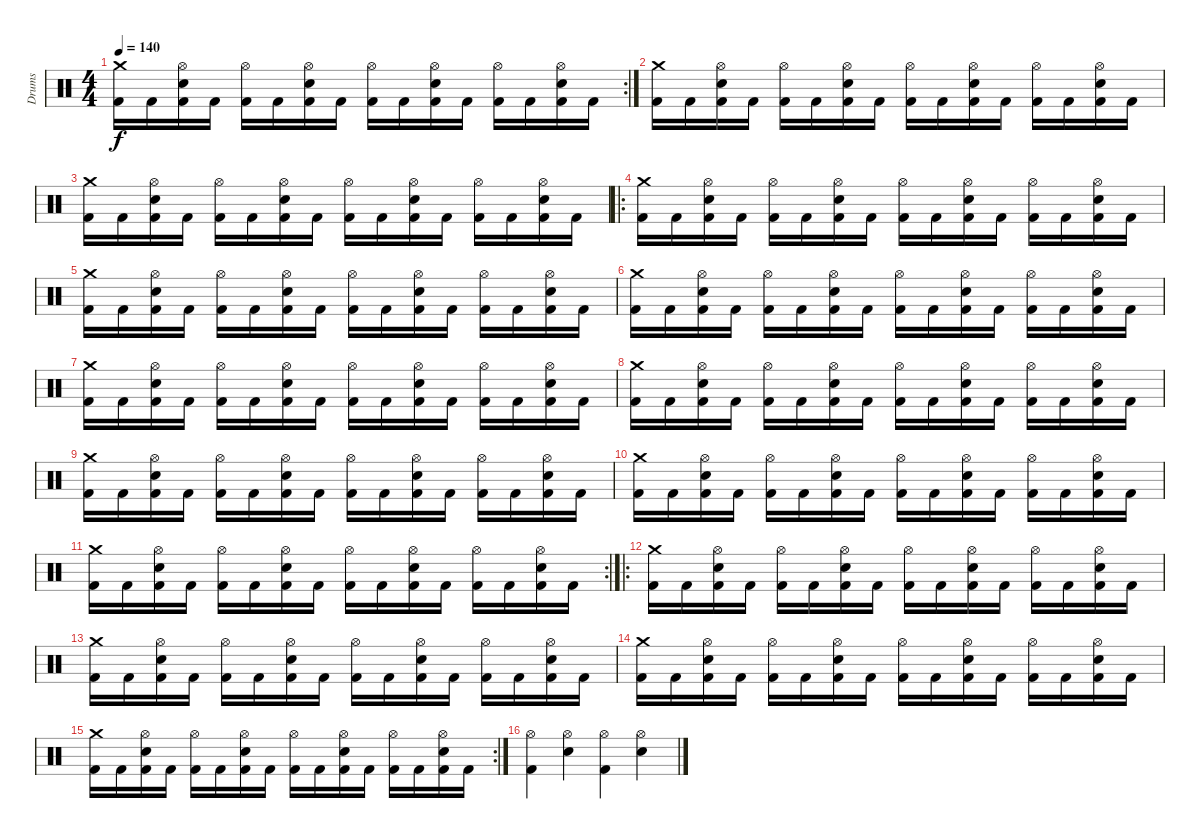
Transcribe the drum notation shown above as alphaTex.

\track ("Drums" "Drums") {instrument percussion}
\staff {score}
\articulation defaults
\rc 2
\ts (4 4)
\tempo 140
\clef neutral
\ks c
("Crash medium (hit)" "Kick (hit) 2").16{dy f} "Kick (hit) 2".16 ("Hi-Hat (open)" "Electric Snare (hit)" "Kick (hit) 2").16 "Kick (hit) 2".16 ("Hi-Hat (open)" "Kick (hit) 2").16 "Kick (hit) 2".16 ("Hi-Hat (open)" "Electric Snare (hit)" "Kick (hit) 2").16 "Kick (hit) 2".16 ("Hi-Hat (open)" "Kick (hit) 2").16 "Kick (hit) 2".16 ("Hi-Hat (open)" "Electric Snare (hit)" "Kick (hit) 2").16 "Kick (hit) 2".16 ("Hi-Hat (open)" "Kick (hit) 2").16 "Kick (hit) 2".16 ("Hi-Hat (open)" "Electric Snare (hit)" "Kick (hit) 2").16 "Kick (hit) 2".16 |
("Crash medium (hit)" "Kick (hit) 2").16 "Kick (hit) 2".16 ("Hi-Hat (open)" "Electric Snare (hit)" "Kick (hit) 2").16 "Kick (hit) 2".16 ("Hi-Hat (open)" "Kick (hit) 2").16 "Kick (hit) 2".16 ("Hi-Hat (open)" "Electric Snare (hit)" "Kick (hit) 2").16 "Kick (hit) 2".16 ("Hi-Hat (open)" "Kick (hit) 2").16 "Kick (hit) 2".16 ("Hi-Hat (open)" "Electric Snare (hit)" "Kick (hit) 2").16 "Kick (hit) 2".16 ("Hi-Hat (open)" "Kick (hit) 2").16 "Kick (hit) 2".16 ("Hi-Hat (open)" "Electric Snare (hit)" "Kick (hit) 2").16 "Kick (hit) 2".16 |
("Crash medium (hit)" "Kick (hit) 2").16 "Kick (hit) 2".16 ("Hi-Hat (open)" "Electric Snare (hit)" "Kick (hit) 2").16 "Kick (hit) 2".16 ("Hi-Hat (open)" "Kick (hit) 2").16 "Kick (hit) 2".16 ("Hi-Hat (open)" "Electric Snare (hit)" "Kick (hit) 2").16 "Kick (hit) 2".16 ("Hi-Hat (open)" "Kick (hit) 2").16 "Kick (hit) 2".16 ("Hi-Hat (open)" "Electric Snare (hit)" "Kick (hit) 2").16 "Kick (hit) 2".16 ("Hi-Hat (open)" "Kick (hit) 2").16 "Kick (hit) 2".16 ("Hi-Hat (open)" "Electric Snare (hit)" "Kick (hit) 2").16 "Kick (hit) 2".16 |
\ro
("Crash medium (hit)" "Kick (hit) 2").16 "Kick (hit) 2".16 ("Hi-Hat (open)" "Electric Snare (hit)" "Kick (hit) 2").16 "Kick (hit) 2".16 ("Hi-Hat (open)" "Kick (hit) 2").16 "Kick (hit) 2".16 ("Hi-Hat (open)" "Electric Snare (hit)" "Kick (hit) 2").16 "Kick (hit) 2".16 ("Hi-Hat (open)" "Kick (hit) 2").16 "Kick (hit) 2".16 ("Hi-Hat (open)" "Electric Snare (hit)" "Kick (hit) 2").16 "Kick (hit) 2".16 ("Hi-Hat (open)" "Kick (hit) 2").16 "Kick (hit) 2".16 ("Hi-Hat (open)" "Electric Snare (hit)" "Kick (hit) 2").16 "Kick (hit) 2".16 |
("Crash medium (hit)" "Kick (hit) 2").16 "Kick (hit) 2".16 ("Hi-Hat (open)" "Electric Snare (hit)" "Kick (hit) 2").16 "Kick (hit) 2".16 ("Hi-Hat (open)" "Kick (hit) 2").16 "Kick (hit) 2".16 ("Hi-Hat (open)" "Electric Snare (hit)" "Kick (hit) 2").16 "Kick (hit) 2".16 ("Hi-Hat (open)" "Kick (hit) 2").16 "Kick (hit) 2".16 ("Hi-Hat (open)" "Electric Snare (hit)" "Kick (hit) 2").16 "Kick (hit) 2".16 ("Hi-Hat (open)" "Kick (hit) 2").16 "Kick (hit) 2".16 ("Hi-Hat (open)" "Electric Snare (hit)" "Kick (hit) 2").16 "Kick (hit) 2".16 |
("Crash medium (hit)" "Kick (hit) 2").16 "Kick (hit) 2".16 ("Hi-Hat (open)" "Electric Snare (hit)" "Kick (hit) 2").16 "Kick (hit) 2".16 ("Hi-Hat (open)" "Kick (hit) 2").16 "Kick (hit) 2".16 ("Hi-Hat (open)" "Electric Snare (hit)" "Kick (hit) 2").16 "Kick (hit) 2".16 ("Hi-Hat (open)" "Kick (hit) 2").16 "Kick (hit) 2".16 ("Hi-Hat (open)" "Electric Snare (hit)" "Kick (hit) 2").16 "Kick (hit) 2".16 ("Hi-Hat (open)" "Kick (hit) 2").16 "Kick (hit) 2".16 ("Hi-Hat (open)" "Electric Snare (hit)" "Kick (hit) 2").16 "Kick (hit) 2".16 |
("Crash medium (hit)" "Kick (hit) 2").16 "Kick (hit) 2".16 ("Hi-Hat (open)" "Electric Snare (hit)" "Kick (hit) 2").16 "Kick (hit) 2".16 ("Hi-Hat (open)" "Kick (hit) 2").16 "Kick (hit) 2".16 ("Hi-Hat (open)" "Electric Snare (hit)" "Kick (hit) 2").16 "Kick (hit) 2".16 ("Hi-Hat (open)" "Kick (hit) 2").16 "Kick (hit) 2".16 ("Hi-Hat (open)" "Electric Snare (hit)" "Kick (hit) 2").16 "Kick (hit) 2".16 ("Hi-Hat (open)" "Kick (hit) 2").16 "Kick (hit) 2".16 ("Hi-Hat (open)" "Electric Snare (hit)" "Kick (hit) 2").16 "Kick (hit) 2".16 |
("Crash medium (hit)" "Kick (hit) 2").16 "Kick (hit) 2".16 ("Hi-Hat (open)" "Electric Snare (hit)" "Kick (hit) 2").16 "Kick (hit) 2".16 ("Hi-Hat (open)" "Kick (hit) 2").16 "Kick (hit) 2".16 ("Hi-Hat (open)" "Electric Snare (hit)" "Kick (hit) 2").16 "Kick (hit) 2".16 ("Hi-Hat (open)" "Kick (hit) 2").16 "Kick (hit) 2".16 ("Hi-Hat (open)" "Electric Snare (hit)" "Kick (hit) 2").16 "Kick (hit) 2".16 ("Hi-Hat (open)" "Kick (hit) 2").16 "Kick (hit) 2".16 ("Hi-Hat (open)" "Electric Snare (hit)" "Kick (hit) 2").16 "Kick (hit) 2".16 |
("Crash medium (hit)" "Kick (hit) 2").16 "Kick (hit) 2".16 ("Hi-Hat (open)" "Electric Snare (hit)" "Kick (hit) 2").16 "Kick (hit) 2".16 ("Hi-Hat (open)" "Kick (hit) 2").16 "Kick (hit) 2".16 ("Hi-Hat (open)" "Electric Snare (hit)" "Kick (hit) 2").16 "Kick (hit) 2".16 ("Hi-Hat (open)" "Kick (hit) 2").16 "Kick (hit) 2".16 ("Hi-Hat (open)" "Electric Snare (hit)" "Kick (hit) 2").16 "Kick (hit) 2".16 ("Hi-Hat (open)" "Kick (hit) 2").16 "Kick (hit) 2".16 ("Hi-Hat (open)" "Electric Snare (hit)" "Kick (hit) 2").16 "Kick (hit) 2".16 |
("Crash medium (hit)" "Kick (hit) 2").16 "Kick (hit) 2".16 ("Hi-Hat (open)" "Electric Snare (hit)" "Kick (hit) 2").16 "Kick (hit) 2".16 ("Hi-Hat (open)" "Kick (hit) 2").16 "Kick (hit) 2".16 ("Hi-Hat (open)" "Electric Snare (hit)" "Kick (hit) 2").16 "Kick (hit) 2".16 ("Hi-Hat (open)" "Kick (hit) 2").16 "Kick (hit) 2".16 ("Hi-Hat (open)" "Electric Snare (hit)" "Kick (hit) 2").16 "Kick (hit) 2".16 ("Hi-Hat (open)" "Kick (hit) 2").16 "Kick (hit) 2".16 ("Hi-Hat (open)" "Electric Snare (hit)" "Kick (hit) 2").16 "Kick (hit) 2".16 |
\rc 2
("Crash medium (hit)" "Kick (hit) 2").16 "Kick (hit) 2".16 ("Hi-Hat (open)" "Electric Snare (hit)" "Kick (hit) 2").16 "Kick (hit) 2".16 ("Hi-Hat (open)" "Kick (hit) 2").16 "Kick (hit) 2".16 ("Hi-Hat (open)" "Electric Snare (hit)" "Kick (hit) 2").16 "Kick (hit) 2".16 ("Hi-Hat (open)" "Kick (hit) 2").16 "Kick (hit) 2".16 ("Hi-Hat (open)" "Electric Snare (hit)" "Kick (hit) 2").16 "Kick (hit) 2".16 ("Hi-Hat (open)" "Kick (hit) 2").16 "Kick (hit) 2".16 ("Hi-Hat (open)" "Electric Snare (hit)" "Kick (hit) 2").16 "Kick (hit) 2".16 |
\ro
("Crash medium (hit)" "Kick (hit) 2").16 "Kick (hit) 2".16 ("Hi-Hat (open)" "Electric Snare (hit)" "Kick (hit) 2").16 "Kick (hit) 2".16 ("Hi-Hat (open)" "Kick (hit) 2").16 "Kick (hit) 2".16 ("Hi-Hat (open)" "Electric Snare (hit)" "Kick (hit) 2").16 "Kick (hit) 2".16 ("Hi-Hat (open)" "Kick (hit) 2").16 "Kick (hit) 2".16 ("Hi-Hat (open)" "Electric Snare (hit)" "Kick (hit) 2").16 "Kick (hit) 2".16 ("Hi-Hat (open)" "Kick (hit) 2").16 "Kick (hit) 2".16 ("Hi-Hat (open)" "Electric Snare (hit)" "Kick (hit) 2").16 "Kick (hit) 2".16 |
("Crash medium (hit)" "Kick (hit) 2").16 "Kick (hit) 2".16 ("Hi-Hat (open)" "Electric Snare (hit)" "Kick (hit) 2").16 "Kick (hit) 2".16 ("Hi-Hat (open)" "Kick (hit) 2").16 "Kick (hit) 2".16 ("Hi-Hat (open)" "Electric Snare (hit)" "Kick (hit) 2").16 "Kick (hit) 2".16 ("Hi-Hat (open)" "Kick (hit) 2").16 "Kick (hit) 2".16 ("Hi-Hat (open)" "Electric Snare (hit)" "Kick (hit) 2").16 "Kick (hit) 2".16 ("Hi-Hat (open)" "Kick (hit) 2").16 "Kick (hit) 2".16 ("Hi-Hat (open)" "Electric Snare (hit)" "Kick (hit) 2").16 "Kick (hit) 2".16 |
("Crash medium (hit)" "Kick (hit) 2").16 "Kick (hit) 2".16 ("Hi-Hat (open)" "Electric Snare (hit)" "Kick (hit) 2").16 "Kick (hit) 2".16 ("Hi-Hat (open)" "Kick (hit) 2").16 "Kick (hit) 2".16 ("Hi-Hat (open)" "Electric Snare (hit)" "Kick (hit) 2").16 "Kick (hit) 2".16 ("Hi-Hat (open)" "Kick (hit) 2").16 "Kick (hit) 2".16 ("Hi-Hat (open)" "Electric Snare (hit)" "Kick (hit) 2").16 "Kick (hit) 2".16 ("Hi-Hat (open)" "Kick (hit) 2").16 "Kick (hit) 2".16 ("Hi-Hat (open)" "Electric Snare (hit)" "Kick (hit) 2").16 "Kick (hit) 2".16 |
\rc 2
("Crash medium (hit)" "Kick (hit) 2").16 "Kick (hit) 2".16 ("Hi-Hat (open)" "Electric Snare (hit)" "Kick (hit) 2").16 "Kick (hit) 2".16 ("Hi-Hat (open)" "Kick (hit) 2").16 "Kick (hit) 2".16 ("Hi-Hat (open)" "Electric Snare (hit)" "Kick (hit) 2").16 "Kick (hit) 2".16 ("Hi-Hat (open)" "Kick (hit) 2").16 "Kick (hit) 2".16 ("Hi-Hat (open)" "Electric Snare (hit)" "Kick (hit) 2").16 "Kick (hit) 2".16 ("Hi-Hat (open)" "Kick (hit) 2").16 "Kick (hit) 2".16 ("Hi-Hat (open)" "Electric Snare (hit)" "Kick (hit) 2").16 "Kick (hit) 2".16 |
("Hi-Hat (open)" "Kick (hit) 2").4 ("Hi-Hat (open)" "Electric Snare (hit)").4 ("Hi-Hat (open)" "Kick (hit) 2").4 ("Hi-Hat (open)" "Electric Snare (hit)").4
